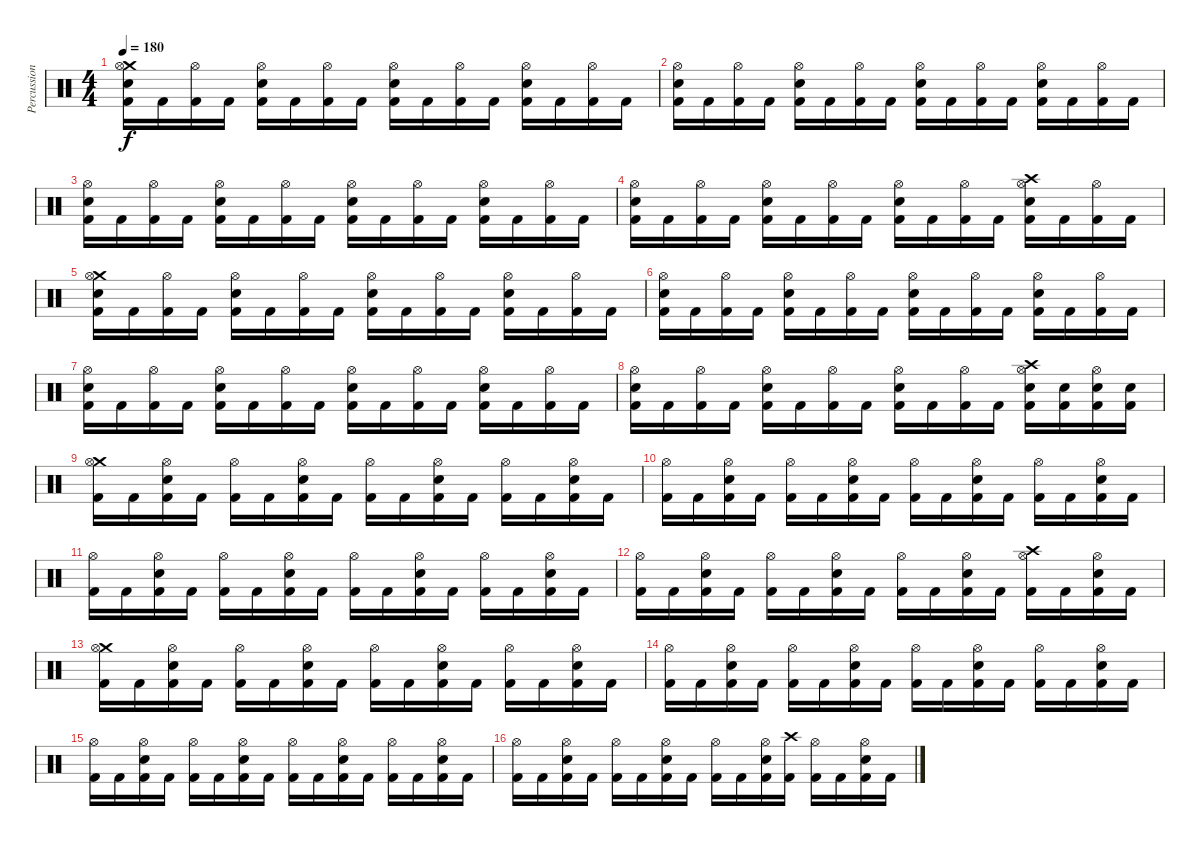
\track ("Percussion" "Percussion") {instrument percussion}
\staff {score}
\articulation defaults
\ts (4 4)
\tempo 180
\clef neutral
\ks c
("Crash medium (hit)" "Hi-Hat (open)" "Snare (hit) 2" "Kick (hit) 2").16{dy f} "Kick (hit) 2".16 ("Hi-Hat (open)" "Kick (hit) 2").16 "Kick (hit) 2".16 ("Hi-Hat (open)" "Snare (hit) 2" "Kick (hit) 2").16 "Kick (hit) 2".16 ("Hi-Hat (open)" "Kick (hit) 2").16 "Kick (hit) 2".16 ("Hi-Hat (open)" "Snare (hit) 2" "Kick (hit) 2").16 "Kick (hit) 2".16 ("Hi-Hat (open)" "Kick (hit) 2").16 "Kick (hit) 2".16 ("Hi-Hat (open)" "Snare (hit) 2" "Kick (hit) 2").16 "Kick (hit) 2".16 ("Hi-Hat (open)" "Kick (hit) 2").16 "Kick (hit) 2".16 |
("Hi-Hat (open)" "Snare (hit) 2" "Kick (hit) 2").16 "Kick (hit) 2".16 ("Hi-Hat (open)" "Kick (hit) 2").16 "Kick (hit) 2".16 ("Hi-Hat (open)" "Snare (hit) 2" "Kick (hit) 2").16 "Kick (hit) 2".16 ("Hi-Hat (open)" "Kick (hit) 2").16 "Kick (hit) 2".16 ("Hi-Hat (open)" "Snare (hit) 2" "Kick (hit) 2").16 "Kick (hit) 2".16 ("Hi-Hat (open)" "Kick (hit) 2").16 "Kick (hit) 2".16 ("Hi-Hat (open)" "Snare (hit) 2" "Kick (hit) 2").16 "Kick (hit) 2".16 ("Hi-Hat (open)" "Kick (hit) 2").16 "Kick (hit) 2".16 |
("Hi-Hat (open)" "Snare (hit) 2" "Kick (hit) 2").16 "Kick (hit) 2".16 ("Hi-Hat (open)" "Kick (hit) 2").16 "Kick (hit) 2".16 ("Hi-Hat (open)" "Snare (hit) 2" "Kick (hit) 2").16 "Kick (hit) 2".16 ("Hi-Hat (open)" "Kick (hit) 2").16 "Kick (hit) 2".16 ("Hi-Hat (open)" "Snare (hit) 2" "Kick (hit) 2").16 "Kick (hit) 2".16 ("Hi-Hat (open)" "Kick (hit) 2").16 "Kick (hit) 2".16 ("Hi-Hat (open)" "Snare (hit) 2" "Kick (hit) 2").16 "Kick (hit) 2".16 ("Hi-Hat (open)" "Kick (hit) 2").16 "Kick (hit) 2".16 |
("Hi-Hat (open)" "Snare (hit) 2" "Kick (hit) 2").16 "Kick (hit) 2".16 ("Hi-Hat (open)" "Kick (hit) 2").16 "Kick (hit) 2".16 ("Hi-Hat (open)" "Snare (hit) 2" "Kick (hit) 2").16 "Kick (hit) 2".16 ("Hi-Hat (open)" "Kick (hit) 2").16 "Kick (hit) 2".16 ("Hi-Hat (open)" "Snare (hit) 2" "Kick (hit) 2").16 "Kick (hit) 2".16 ("Hi-Hat (open)" "Kick (hit) 2").16 "Kick (hit) 2".16 ("Crash high (hit)" "Hi-Hat (open)" "Snare (hit) 2" "Kick (hit) 2").16 "Kick (hit) 2".16 ("Hi-Hat (open)" "Kick (hit) 2").16 "Kick (hit) 2".16 |
("Crash medium (hit)" "Hi-Hat (open)" "Snare (hit) 2" "Kick (hit) 2").16 "Kick (hit) 2".16 ("Hi-Hat (open)" "Kick (hit) 2").16 "Kick (hit) 2".16 ("Hi-Hat (open)" "Snare (hit) 2" "Kick (hit) 2").16 "Kick (hit) 2".16 ("Hi-Hat (open)" "Kick (hit) 2").16 "Kick (hit) 2".16 ("Hi-Hat (open)" "Snare (hit) 2" "Kick (hit) 2").16 "Kick (hit) 2".16 ("Hi-Hat (open)" "Kick (hit) 2").16 "Kick (hit) 2".16 ("Hi-Hat (open)" "Snare (hit) 2" "Kick (hit) 2").16 "Kick (hit) 2".16 ("Hi-Hat (open)" "Kick (hit) 2").16 "Kick (hit) 2".16 |
("Hi-Hat (open)" "Snare (hit) 2" "Kick (hit) 2").16 "Kick (hit) 2".16 ("Hi-Hat (open)" "Kick (hit) 2").16 "Kick (hit) 2".16 ("Hi-Hat (open)" "Snare (hit) 2" "Kick (hit) 2").16 "Kick (hit) 2".16 ("Hi-Hat (open)" "Kick (hit) 2").16 "Kick (hit) 2".16 ("Hi-Hat (open)" "Snare (hit) 2" "Kick (hit) 2").16 "Kick (hit) 2".16 ("Hi-Hat (open)" "Kick (hit) 2").16 "Kick (hit) 2".16 ("Hi-Hat (open)" "Snare (hit) 2" "Kick (hit) 2").16 "Kick (hit) 2".16 ("Hi-Hat (open)" "Kick (hit) 2").16 "Kick (hit) 2".16 |
("Hi-Hat (open)" "Snare (hit) 2" "Kick (hit) 2").16 "Kick (hit) 2".16 ("Hi-Hat (open)" "Kick (hit) 2").16 "Kick (hit) 2".16 ("Hi-Hat (open)" "Snare (hit) 2" "Kick (hit) 2").16 "Kick (hit) 2".16 ("Hi-Hat (open)" "Kick (hit) 2").16 "Kick (hit) 2".16 ("Hi-Hat (open)" "Snare (hit) 2" "Kick (hit) 2").16 "Kick (hit) 2".16 ("Hi-Hat (open)" "Kick (hit) 2").16 "Kick (hit) 2".16 ("Hi-Hat (open)" "Snare (hit) 2" "Kick (hit) 2").16 "Kick (hit) 2".16 ("Hi-Hat (open)" "Kick (hit) 2").16 "Kick (hit) 2".16 |
("Hi-Hat (open)" "Snare (hit) 2" "Kick (hit) 2").16 "Kick (hit) 2".16 ("Hi-Hat (open)" "Kick (hit) 2").16 "Kick (hit) 2".16 ("Hi-Hat (open)" "Snare (hit) 2" "Kick (hit) 2").16 "Kick (hit) 2".16 ("Hi-Hat (open)" "Kick (hit) 2").16 "Kick (hit) 2".16 ("Hi-Hat (open)" "Snare (hit) 2" "Kick (hit) 2").16 "Kick (hit) 2".16 ("Hi-Hat (open)" "Kick (hit) 2").16 "Kick (hit) 2".16 ("Crash high (hit)" "Hi-Hat (open)" "Snare (hit) 2" "Kick (hit) 2").16 ("Snare (hit) 2" "Kick (hit) 2").16 ("Hi-Hat (open)" "Snare (hit) 2" "Kick (hit) 2").16 ("Snare (hit) 2" "Kick (hit) 2").16 |
("Crash medium (hit)" "Hi-Hat (open)" "Kick (hit) 2").16 "Kick (hit) 2".16 ("Hi-Hat (open)" "Snare (hit) 2" "Kick (hit) 2").16 "Kick (hit) 2".16 ("Hi-Hat (open)" "Kick (hit) 2").16 "Kick (hit) 2".16 ("Hi-Hat (open)" "Snare (hit) 2" "Kick (hit) 2").16 "Kick (hit) 2".16 ("Hi-Hat (open)" "Kick (hit) 2").16 "Kick (hit) 2".16 ("Hi-Hat (open)" "Snare (hit) 2" "Kick (hit) 2").16 "Kick (hit) 2".16 ("Hi-Hat (open)" "Kick (hit) 2").16 "Kick (hit) 2".16 ("Hi-Hat (open)" "Snare (hit) 2" "Kick (hit) 2").16 "Kick (hit) 2".16 |
("Hi-Hat (open)" "Kick (hit) 2").16 "Kick (hit) 2".16 ("Hi-Hat (open)" "Snare (hit) 2" "Kick (hit) 2").16 "Kick (hit) 2".16 ("Hi-Hat (open)" "Kick (hit) 2").16 "Kick (hit) 2".16 ("Hi-Hat (open)" "Snare (hit) 2" "Kick (hit) 2").16 "Kick (hit) 2".16 ("Hi-Hat (open)" "Kick (hit) 2").16 "Kick (hit) 2".16 ("Hi-Hat (open)" "Snare (hit) 2" "Kick (hit) 2").16 "Kick (hit) 2".16 ("Hi-Hat (open)" "Kick (hit) 2").16 "Kick (hit) 2".16 ("Hi-Hat (open)" "Snare (hit) 2" "Kick (hit) 2").16 "Kick (hit) 2".16 |
("Hi-Hat (open)" "Kick (hit) 2").16 "Kick (hit) 2".16 ("Hi-Hat (open)" "Snare (hit) 2" "Kick (hit) 2").16 "Kick (hit) 2".16 ("Hi-Hat (open)" "Kick (hit) 2").16 "Kick (hit) 2".16 ("Hi-Hat (open)" "Snare (hit) 2" "Kick (hit) 2").16 "Kick (hit) 2".16 ("Hi-Hat (open)" "Kick (hit) 2").16 "Kick (hit) 2".16 ("Hi-Hat (open)" "Snare (hit) 2" "Kick (hit) 2").16 "Kick (hit) 2".16 ("Hi-Hat (open)" "Kick (hit) 2").16 "Kick (hit) 2".16 ("Hi-Hat (open)" "Snare (hit) 2" "Kick (hit) 2").16 "Kick (hit) 2".16 |
("Hi-Hat (open)" "Kick (hit) 2").16 "Kick (hit) 2".16 ("Hi-Hat (open)" "Snare (hit) 2" "Kick (hit) 2").16 "Kick (hit) 2".16 ("Hi-Hat (open)" "Kick (hit) 2").16 "Kick (hit) 2".16 ("Hi-Hat (open)" "Snare (hit) 2" "Kick (hit) 2").16 "Kick (hit) 2".16 ("Hi-Hat (open)" "Kick (hit) 2").16 "Kick (hit) 2".16 ("Hi-Hat (open)" "Snare (hit) 2" "Kick (hit) 2").16 "Kick (hit) 2".16 ("Crash high (hit)" "Hi-Hat (open)" "Kick (hit) 2").16 "Kick (hit) 2".16 ("Hi-Hat (open)" "Snare (hit) 2" "Kick (hit) 2").16 "Kick (hit) 2".16 |
("Crash medium (hit)" "Hi-Hat (open)" "Kick (hit) 2").16 "Kick (hit) 2".16 ("Hi-Hat (open)" "Snare (hit) 2" "Kick (hit) 2").16 "Kick (hit) 2".16 ("Hi-Hat (open)" "Kick (hit) 2").16 "Kick (hit) 2".16 ("Hi-Hat (open)" "Snare (hit) 2" "Kick (hit) 2").16 "Kick (hit) 2".16 ("Hi-Hat (open)" "Kick (hit) 2").16 "Kick (hit) 2".16 ("Hi-Hat (open)" "Snare (hit) 2" "Kick (hit) 2").16 "Kick (hit) 2".16 ("Hi-Hat (open)" "Kick (hit) 2").16 "Kick (hit) 2".16 ("Hi-Hat (open)" "Snare (hit) 2" "Kick (hit) 2").16 "Kick (hit) 2".16 |
("Hi-Hat (open)" "Kick (hit) 2").16 "Kick (hit) 2".16 ("Hi-Hat (open)" "Snare (hit) 2" "Kick (hit) 2").16 "Kick (hit) 2".16 ("Hi-Hat (open)" "Kick (hit) 2").16 "Kick (hit) 2".16 ("Hi-Hat (open)" "Snare (hit) 2" "Kick (hit) 2").16 "Kick (hit) 2".16 ("Hi-Hat (open)" "Kick (hit) 2").16 "Kick (hit) 2".16 ("Hi-Hat (open)" "Snare (hit) 2" "Kick (hit) 2").16 "Kick (hit) 2".16 ("Hi-Hat (open)" "Kick (hit) 2").16 "Kick (hit) 2".16 ("Hi-Hat (open)" "Snare (hit) 2" "Kick (hit) 2").16 "Kick (hit) 2".16 |
("Hi-Hat (open)" "Kick (hit) 2").16 "Kick (hit) 2".16 ("Hi-Hat (open)" "Snare (hit) 2" "Kick (hit) 2").16 "Kick (hit) 2".16 ("Hi-Hat (open)" "Kick (hit) 2").16 "Kick (hit) 2".16 ("Hi-Hat (open)" "Snare (hit) 2" "Kick (hit) 2").16 "Kick (hit) 2".16 ("Hi-Hat (open)" "Kick (hit) 2").16 "Kick (hit) 2".16 ("Hi-Hat (open)" "Snare (hit) 2" "Kick (hit) 2").16 "Kick (hit) 2".16 ("Hi-Hat (open)" "Kick (hit) 2").16 "Kick (hit) 2".16 ("Hi-Hat (open)" "Snare (hit) 2" "Kick (hit) 2").16 "Kick (hit) 2".16 |
("Hi-Hat (open)" "Kick (hit) 2").16 "Kick (hit) 2".16 ("Hi-Hat (open)" "Snare (hit) 2" "Kick (hit) 2").16 "Kick (hit) 2".16 ("Hi-Hat (open)" "Kick (hit) 2").16 "Kick (hit) 2".16 ("Hi-Hat (open)" "Snare (hit) 2" "Kick (hit) 2").16 "Kick (hit) 2".16 ("Hi-Hat (open)" "Kick (hit) 2").16 "Kick (hit) 2".16 ("Hi-Hat (open)" "Snare (hit) 2" "Kick (hit) 2").16 ("Crash high (hit)" "Kick (hit) 2").16 ("Hi-Hat (open)" "Kick (hit) 2").16 "Kick (hit) 2".16 ("Hi-Hat (open)" "Snare (hit) 2" "Kick (hit) 2").16 "Kick (hit) 2".16
